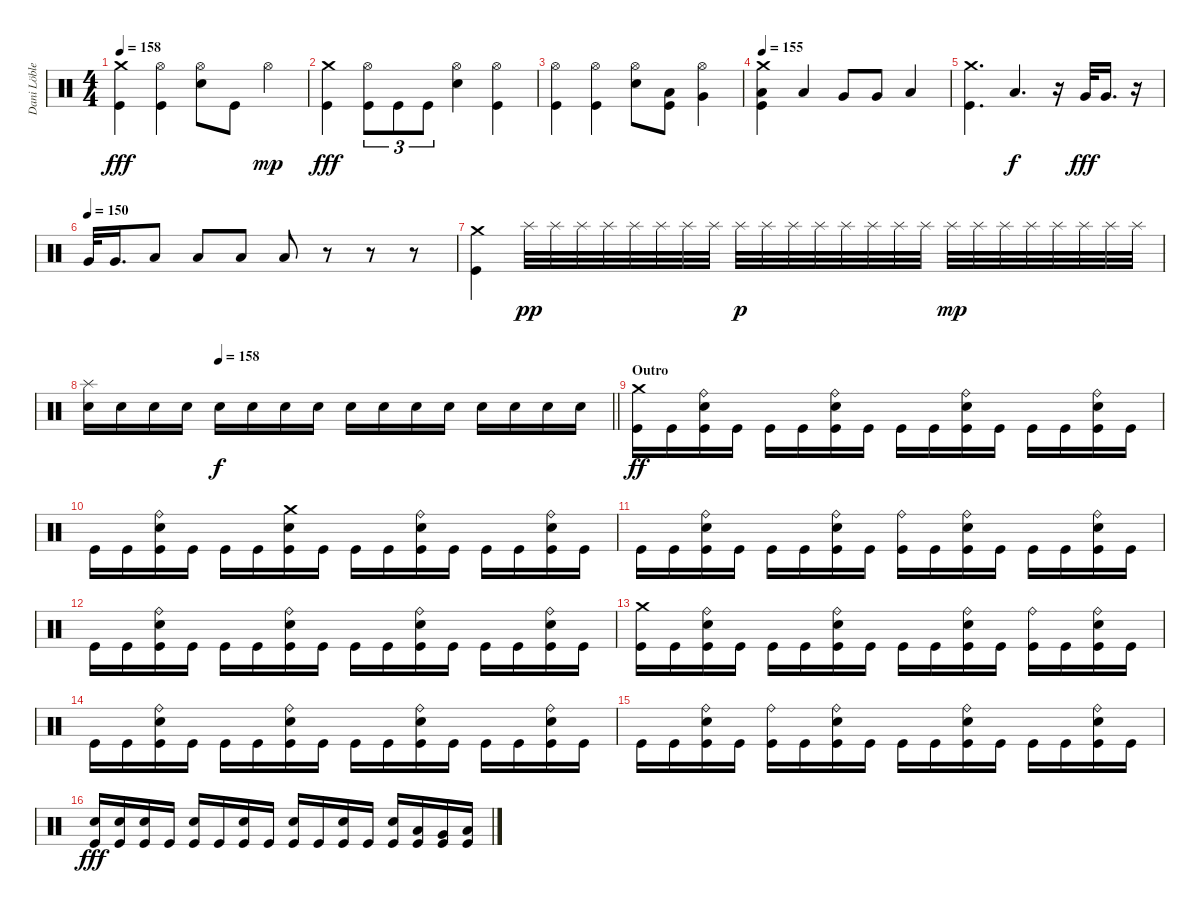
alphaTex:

\track ("Dani Löble" "Dani Löble") {instrument percussion}
\staff {score}
\articulation defaults
\ts (4 4)
\tempo 158
\clef neutral
\ks c
("Crash medium (hit)" "Kick (hit)").4{dy fff} ("Hi-Hat (open)" "Kick (hit)").4 ("Hi-Hat (open)" "Electric Snare (hit)").8 "Kick (hit)".8 "Hi-Hat (open)".4{dy mp} |
("Crash medium (hit)" "Kick (hit)").4{dy fff} ("Hi-Hat (open)" "Kick (hit)").8{tu (3 2)} "Kick (hit)".8{tu (3 2)} "Kick (hit)".8{tu (3 2)} ("Hi-Hat (open)" "Electric Snare (hit)").4 ("Hi-Hat (open)" "Kick (hit)").4 |
("Hi-Hat (open)" "Kick (hit)").4 ("Hi-Hat (open)" "Kick (hit)").4 ("Hi-Hat (open)" "Electric Snare (hit)").8 ("Low Tom (hit)" "Kick (hit)").8 ("Hi-Hat (open)" "Very Low Tom (hit)").4 |
\tempo 155
("Crash medium (hit)" "Low Tom (hit)" "Kick (hit)").4 "Low Tom (hit)".4 "Very Low Tom (hit)".8 "Very Low Tom (hit)".8 "Low Floor Tom (hit)".4 |
("Crash medium (hit)" "Kick (hit)").4{d} "Low Tom (hit)".4{d dy f} r.16 "Very Low Tom (hit)".32{dy fff} "Very Low Tom (hit)".16{d} r.16 |
\tempo (150)
"Very Low Tom (hit)".32 "Very Low Tom (hit)".16{d} "Low Floor Tom (hit)".8 "Low Floor Tom (hit)".8 "Low Floor Tom (hit)".8 "Low Floor Tom (hit)".8 r.8 r.8 r.8 |
("Crash medium (hit)" "Kick (hit)").4 "Splash (hit)".32{dy pp} "Splash (hit)".32 "Splash (hit)".32 "Splash (hit)".32 "Splash (hit)".32 "Splash (hit)".32 "Splash (hit)".32 "Splash (hit)".32 "Splash (hit)".32{dy p} "Splash (hit)".32 "Splash (hit)".32 "Splash (hit)".32 "Splash (hit)".32 "Splash (hit)".32 "Splash (hit)".32 "Splash (hit)".32 "Splash (hit)".32{dy mp} "Splash (hit)".32 "Splash (hit)".32 "Splash (hit)".32 "Splash (hit)".32 "Splash (hit)".32 "Splash (hit)".32 "Splash (hit)".32 |
\tempo (158 0.25)
\barLineRight lightlight
("Splash (hit)" "Electric Snare (hit)").16 "Electric Snare (hit)".16 "Electric Snare (hit)".16 "Electric Snare (hit)".16 "Electric Snare (hit)".16{dy f} "Electric Snare (hit)".16 "Electric Snare (hit)".16 "Electric Snare (hit)".16 "Electric Snare (hit)".16 "Electric Snare (hit)".16 "Electric Snare (hit)".16 "Electric Snare (hit)".16 "Electric Snare (hit)".16 "Electric Snare (hit)".16 "Electric Snare (hit)".16 "Electric Snare (hit)".16 |
\section ("" "Outro")
("Crash medium (hit)" "Kick (hit)").16{dy ff} "Kick (hit)".16 ("Ride (bell)" "Electric Snare (hit)" "Kick (hit)").16 "Kick (hit)".16 "Kick (hit)".16 "Kick (hit)".16 ("Ride (bell)" "Electric Snare (hit)" "Kick (hit)").16 "Kick (hit)".16 "Kick (hit)".16 "Kick (hit)".16 ("Ride (bell)" "Electric Snare (hit)" "Kick (hit)").16 "Kick (hit)".16 "Kick (hit)".16 "Kick (hit)".16 ("Ride (bell)" "Electric Snare (hit)" "Kick (hit)").16 "Kick (hit)".16 |
"Kick (hit)".16 "Kick (hit)".16 ("Ride (bell)" "Electric Snare (hit)" "Kick (hit)").16 "Kick (hit)".16 "Kick (hit)".16 "Kick (hit)".16 ("Crash medium (hit)" "Electric Snare (hit)" "Kick (hit)").16 "Kick (hit)".16 "Kick (hit)".16 "Kick (hit)".16 ("Ride (bell)" "Electric Snare (hit)" "Kick (hit)").16 "Kick (hit)".16 "Kick (hit)".16 "Kick (hit)".16 ("Ride (bell)" "Electric Snare (hit)" "Kick (hit)").16 "Kick (hit)".16 |
"Kick (hit)".16 "Kick (hit)".16 ("Ride (bell)" "Electric Snare (hit)" "Kick (hit)").16 "Kick (hit)".16 "Kick (hit)".16 "Kick (hit)".16 ("Ride (bell)" "Electric Snare (hit)" "Kick (hit)").16 "Kick (hit)".16 ("Ride (bell)" "Kick (hit)").16 "Kick (hit)".16 ("Ride (bell)" "Electric Snare (hit)" "Kick (hit)").16 "Kick (hit)".16 "Kick (hit)".16 "Kick (hit)".16 ("Ride (bell)" "Electric Snare (hit)" "Kick (hit)").16 "Kick (hit)".16 |
"Kick (hit)".16 "Kick (hit)".16 ("Ride (bell)" "Electric Snare (hit)" "Kick (hit)").16 "Kick (hit)".16 "Kick (hit)".16 "Kick (hit)".16 ("Ride (bell)" "Electric Snare (hit)" "Kick (hit)").16 "Kick (hit)".16 "Kick (hit)".16 "Kick (hit)".16 ("Ride (bell)" "Electric Snare (hit)" "Kick (hit)").16 "Kick (hit)".16 "Kick (hit)".16 "Kick (hit)".16 ("Ride (bell)" "Electric Snare (hit)" "Kick (hit)").16 "Kick (hit)".16 |
("Crash medium (hit)" "Kick (hit)").16 "Kick (hit)".16 ("Ride (bell)" "Electric Snare (hit)" "Kick (hit)").16 "Kick (hit)".16 "Kick (hit)".16 "Kick (hit)".16 ("Ride (bell)" "Electric Snare (hit)" "Kick (hit)").16 "Kick (hit)".16 "Kick (hit)".16 "Kick (hit)".16 ("Ride (bell)" "Electric Snare (hit)" "Kick (hit)").16 "Kick (hit)".16 ("Ride (bell)" "Kick (hit)").16 "Kick (hit)".16 ("Ride (bell)" "Electric Snare (hit)" "Kick (hit)").16 "Kick (hit)".16 |
"Kick (hit)".16 "Kick (hit)".16 ("Ride (bell)" "Electric Snare (hit)" "Kick (hit)").16 "Kick (hit)".16 "Kick (hit)".16 "Kick (hit)".16 ("Ride (bell)" "Electric Snare (hit)" "Kick (hit)").16 "Kick (hit)".16 "Kick (hit)".16 "Kick (hit)".16 ("Ride (bell)" "Electric Snare (hit)" "Kick (hit)").16 "Kick (hit)".16 "Kick (hit)".16 "Kick (hit)".16 ("Ride (bell)" "Electric Snare (hit)" "Kick (hit)").16 "Kick (hit)".16 |
"Kick (hit)".16 "Kick (hit)".16 ("Ride (bell)" "Electric Snare (hit)" "Kick (hit)").16 "Kick (hit)".16 ("Ride (bell)" "Kick (hit)").16 "Kick (hit)".16 ("Ride (bell)" "Electric Snare (hit)" "Kick (hit)").16 "Kick (hit)".16 "Kick (hit)".16 "Kick (hit)".16 ("Ride (bell)" "Electric Snare (hit)" "Kick (hit)").16 "Kick (hit)".16 "Kick (hit)".16 "Kick (hit)".16 ("Ride (bell)" "Electric Snare (hit)" "Kick (hit)").16 "Kick (hit)".16 |
("Electric Snare (hit)" "Kick (hit)").16{dy fff} ("Electric Snare (hit)" "Kick (hit)").16 ("Electric Snare (hit)" "Kick (hit)").16 "Kick (hit)".16 ("Electric Snare (hit)" "Kick (hit)").16 "Kick (hit)".16 ("Electric Snare (hit)" "Kick (hit)").16 "Kick (hit)".16 ("Electric Snare (hit)" "Kick (hit)").16 "Kick (hit)".16 ("Electric Snare (hit)" "Kick (hit)").16 "Kick (hit)".16 ("Electric Snare (hit)" "Kick (hit)").16 ("Low Tom (hit)" "Kick (hit)").16 ("Very Low Tom (hit)" "Kick (hit)").16 ("Low Floor Tom (hit)" "Kick (hit)").16
